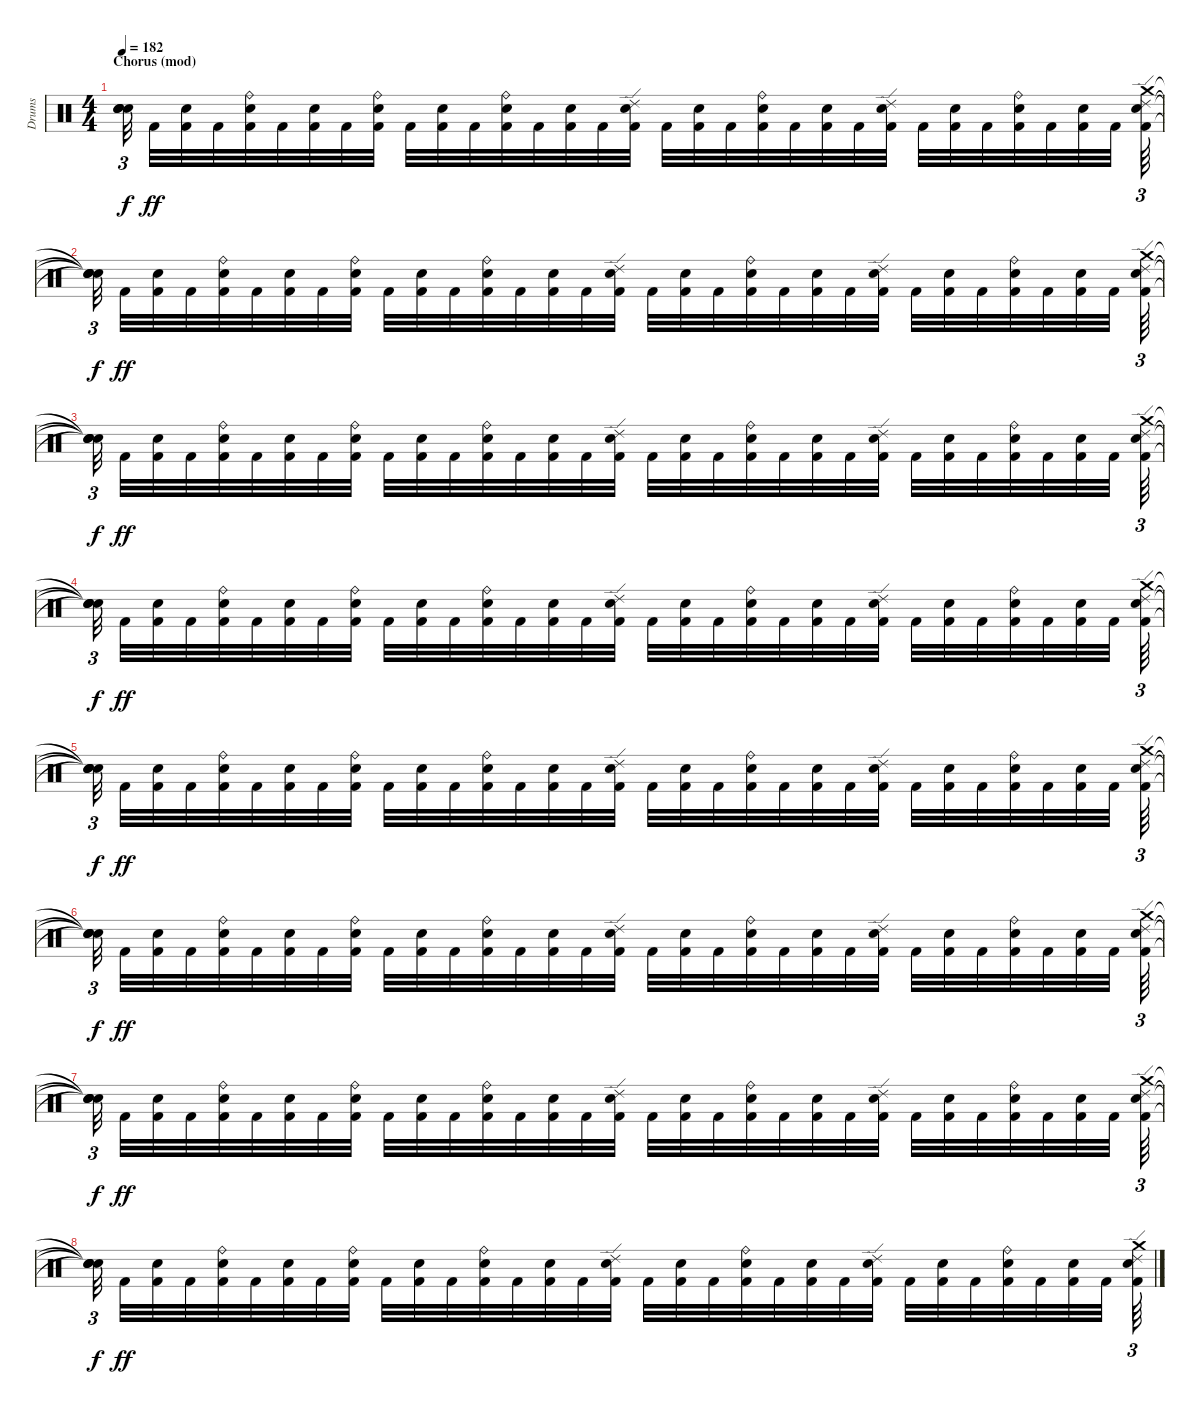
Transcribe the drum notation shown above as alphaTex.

\track ("Drums" "Drums") {instrument percussion}
\staff {score}
\articulation defaults
\ts (4 4)
\section ("" "Chorus (mod)")
\tempo 182
\clef neutral
\ks c
("Snare (hit)"{t} "Snare (hit)"{t} "Snare (hit)"{t} "Snare (hit)"{t}).32{tu (3 2) dy f beam splitsecondary} "Kick (hit) 2".32{dy ff} ("Kick (hit) 2" "Snare (hit) 2").32 "Kick (hit) 2".32 ("Kick (hit) 2" "Snare (hit) 2" "Ride (bell)").32 "Kick (hit) 2".32 ("Kick (hit) 2" "Snare (hit) 2").32 "Kick (hit) 2".32 ("Kick (hit) 2" "Snare (hit) 2" "Ride (bell)").32 "Kick (hit) 2".32 ("Kick (hit) 2" "Snare (hit) 2").32 "Kick (hit) 2".32 ("Kick (hit) 2" "Snare (hit) 2" "Ride (bell)").32 "Kick (hit) 2".32 ("Kick (hit) 2" "Snare (hit) 2").32 "Kick (hit) 2".32 ("Kick (hit) 2" "Snare (hit) 2" "Ride (edge) 2").32 "Kick (hit) 2".32 ("Kick (hit) 2" "Snare (hit) 2").32 "Kick (hit) 2".32 ("Kick (hit) 2" "Snare (hit) 2" "Ride (bell)").32 "Kick (hit) 2".32 ("Kick (hit) 2" "Snare (hit) 2").32 "Kick (hit) 2".32 ("Kick (hit) 2" "Snare (hit) 2" "Ride (edge) 2").32 "Kick (hit) 2".32 ("Kick (hit) 2" "Snare (hit) 2").32 "Kick (hit) 2".32 ("Kick (hit) 2" "Snare (hit) 2" "Ride (bell)").32 "Kick (hit) 2".32 ("Kick (hit) 2" "Snare (hit) 2").32 "Kick (hit) 2".32{beam splitsecondary} ("Kick (hit) 2" "Snare (hit) 2" "Ride (edge) 2" "Crash medium (hit)").64{tu (3 2)} |
("Snare (hit)"{t} "Snare (hit)"{t} "Snare (hit)"{t} "Snare (hit)"{t}).32{tu (3 2) dy f beam splitsecondary} "Kick (hit) 2".32{dy ff} ("Kick (hit) 2" "Snare (hit) 2").32 "Kick (hit) 2".32 ("Kick (hit) 2" "Snare (hit) 2" "Ride (bell)").32 "Kick (hit) 2".32 ("Kick (hit) 2" "Snare (hit) 2").32 "Kick (hit) 2".32 ("Kick (hit) 2" "Snare (hit) 2" "Ride (bell)").32 "Kick (hit) 2".32 ("Kick (hit) 2" "Snare (hit) 2").32 "Kick (hit) 2".32 ("Kick (hit) 2" "Snare (hit) 2" "Ride (bell)").32 "Kick (hit) 2".32 ("Kick (hit) 2" "Snare (hit) 2").32 "Kick (hit) 2".32 ("Kick (hit) 2" "Snare (hit) 2" "Ride (edge) 2").32 "Kick (hit) 2".32 ("Kick (hit) 2" "Snare (hit) 2").32 "Kick (hit) 2".32 ("Kick (hit) 2" "Snare (hit) 2" "Ride (bell)").32 "Kick (hit) 2".32 ("Kick (hit) 2" "Snare (hit) 2").32 "Kick (hit) 2".32 ("Kick (hit) 2" "Snare (hit) 2" "Ride (edge) 2").32 "Kick (hit) 2".32 ("Kick (hit) 2" "Snare (hit) 2").32 "Kick (hit) 2".32 ("Kick (hit) 2" "Snare (hit) 2" "Ride (bell)").32 "Kick (hit) 2".32 ("Kick (hit) 2" "Snare (hit) 2").32 "Kick (hit) 2".32{beam splitsecondary} ("Kick (hit) 2" "Snare (hit) 2" "Ride (edge) 2" "Crash medium (hit)").64{tu (3 2)} |
("Snare (hit)"{t} "Snare (hit)"{t} "Snare (hit)"{t} "Snare (hit)"{t}).32{tu (3 2) dy f beam splitsecondary} "Kick (hit) 2".32{dy ff} ("Kick (hit) 2" "Snare (hit) 2").32 "Kick (hit) 2".32 ("Kick (hit) 2" "Snare (hit) 2" "Ride (bell)").32 "Kick (hit) 2".32 ("Kick (hit) 2" "Snare (hit) 2").32 "Kick (hit) 2".32 ("Kick (hit) 2" "Snare (hit) 2" "Ride (bell)").32 "Kick (hit) 2".32 ("Kick (hit) 2" "Snare (hit) 2").32 "Kick (hit) 2".32 ("Kick (hit) 2" "Snare (hit) 2" "Ride (bell)").32 "Kick (hit) 2".32 ("Kick (hit) 2" "Snare (hit) 2").32 "Kick (hit) 2".32 ("Kick (hit) 2" "Snare (hit) 2" "Ride (edge) 2").32 "Kick (hit) 2".32 ("Kick (hit) 2" "Snare (hit) 2").32 "Kick (hit) 2".32 ("Kick (hit) 2" "Snare (hit) 2" "Ride (bell)").32 "Kick (hit) 2".32 ("Kick (hit) 2" "Snare (hit) 2").32 "Kick (hit) 2".32 ("Kick (hit) 2" "Snare (hit) 2" "Ride (edge) 2").32 "Kick (hit) 2".32 ("Kick (hit) 2" "Snare (hit) 2").32 "Kick (hit) 2".32 ("Kick (hit) 2" "Snare (hit) 2" "Ride (bell)").32 "Kick (hit) 2".32 ("Kick (hit) 2" "Snare (hit) 2").32 "Kick (hit) 2".32{beam splitsecondary} ("Kick (hit) 2" "Snare (hit) 2" "Ride (edge) 2" "Crash medium (hit)").64{tu (3 2)} |
("Snare (hit)"{t} "Snare (hit)"{t} "Snare (hit)"{t} "Snare (hit)"{t}).32{tu (3 2) dy f beam splitsecondary} "Kick (hit) 2".32{dy ff} ("Kick (hit) 2" "Snare (hit) 2").32 "Kick (hit) 2".32 ("Kick (hit) 2" "Snare (hit) 2" "Ride (bell)").32 "Kick (hit) 2".32 ("Kick (hit) 2" "Snare (hit) 2").32 "Kick (hit) 2".32 ("Kick (hit) 2" "Snare (hit) 2" "Ride (bell)").32 "Kick (hit) 2".32 ("Kick (hit) 2" "Snare (hit) 2").32 "Kick (hit) 2".32 ("Kick (hit) 2" "Snare (hit) 2" "Ride (bell)").32 "Kick (hit) 2".32 ("Kick (hit) 2" "Snare (hit) 2").32 "Kick (hit) 2".32 ("Kick (hit) 2" "Snare (hit) 2" "Ride (edge) 2").32 "Kick (hit) 2".32 ("Kick (hit) 2" "Snare (hit) 2").32 "Kick (hit) 2".32 ("Kick (hit) 2" "Snare (hit) 2" "Ride (bell)").32 "Kick (hit) 2".32 ("Kick (hit) 2" "Snare (hit) 2").32 "Kick (hit) 2".32 ("Kick (hit) 2" "Snare (hit) 2" "Ride (edge) 2").32 "Kick (hit) 2".32 ("Kick (hit) 2" "Snare (hit) 2").32 "Kick (hit) 2".32 ("Kick (hit) 2" "Snare (hit) 2" "Ride (bell)").32 "Kick (hit) 2".32 ("Kick (hit) 2" "Snare (hit) 2").32 "Kick (hit) 2".32{beam splitsecondary} ("Kick (hit) 2" "Snare (hit) 2" "Ride (edge) 2" "Crash medium (hit)").64{tu (3 2)} |
("Snare (hit)"{t} "Snare (hit)"{t} "Snare (hit)"{t} "Snare (hit)"{t}).32{tu (3 2) dy f beam splitsecondary} "Kick (hit) 2".32{dy ff} ("Kick (hit) 2" "Snare (hit) 2").32 "Kick (hit) 2".32 ("Kick (hit) 2" "Snare (hit) 2" "Ride (bell)").32 "Kick (hit) 2".32 ("Kick (hit) 2" "Snare (hit) 2").32 "Kick (hit) 2".32 ("Kick (hit) 2" "Snare (hit) 2" "Ride (bell)").32 "Kick (hit) 2".32 ("Kick (hit) 2" "Snare (hit) 2").32 "Kick (hit) 2".32 ("Kick (hit) 2" "Snare (hit) 2" "Ride (bell)").32 "Kick (hit) 2".32 ("Kick (hit) 2" "Snare (hit) 2").32 "Kick (hit) 2".32 ("Kick (hit) 2" "Snare (hit) 2" "Ride (edge) 2").32 "Kick (hit) 2".32 ("Kick (hit) 2" "Snare (hit) 2").32 "Kick (hit) 2".32 ("Kick (hit) 2" "Snare (hit) 2" "Ride (bell)").32 "Kick (hit) 2".32 ("Kick (hit) 2" "Snare (hit) 2").32 "Kick (hit) 2".32 ("Kick (hit) 2" "Snare (hit) 2" "Ride (edge) 2").32 "Kick (hit) 2".32 ("Kick (hit) 2" "Snare (hit) 2").32 "Kick (hit) 2".32 ("Kick (hit) 2" "Snare (hit) 2" "Ride (bell)").32 "Kick (hit) 2".32 ("Kick (hit) 2" "Snare (hit) 2").32 "Kick (hit) 2".32{beam splitsecondary} ("Kick (hit) 2" "Snare (hit) 2" "Ride (edge) 2" "Crash medium (hit)").64{tu (3 2)} |
("Snare (hit)"{t} "Snare (hit)"{t} "Snare (hit)"{t} "Snare (hit)"{t}).32{tu (3 2) dy f beam splitsecondary} "Kick (hit) 2".32{dy ff} ("Kick (hit) 2" "Snare (hit) 2").32 "Kick (hit) 2".32 ("Kick (hit) 2" "Snare (hit) 2" "Ride (bell)").32 "Kick (hit) 2".32 ("Kick (hit) 2" "Snare (hit) 2").32 "Kick (hit) 2".32 ("Kick (hit) 2" "Snare (hit) 2" "Ride (bell)").32 "Kick (hit) 2".32 ("Kick (hit) 2" "Snare (hit) 2").32 "Kick (hit) 2".32 ("Kick (hit) 2" "Snare (hit) 2" "Ride (bell)").32 "Kick (hit) 2".32 ("Kick (hit) 2" "Snare (hit) 2").32 "Kick (hit) 2".32 ("Kick (hit) 2" "Snare (hit) 2" "Ride (edge) 2").32 "Kick (hit) 2".32 ("Kick (hit) 2" "Snare (hit) 2").32 "Kick (hit) 2".32 ("Kick (hit) 2" "Snare (hit) 2" "Ride (bell)").32 "Kick (hit) 2".32 ("Kick (hit) 2" "Snare (hit) 2").32 "Kick (hit) 2".32 ("Kick (hit) 2" "Snare (hit) 2" "Ride (edge) 2").32 "Kick (hit) 2".32 ("Kick (hit) 2" "Snare (hit) 2").32 "Kick (hit) 2".32 ("Kick (hit) 2" "Snare (hit) 2" "Ride (bell)").32 "Kick (hit) 2".32 ("Kick (hit) 2" "Snare (hit) 2").32 "Kick (hit) 2".32{beam splitsecondary} ("Kick (hit) 2" "Snare (hit) 2" "Ride (edge) 2" "Crash medium (hit)").64{tu (3 2)} |
("Snare (hit)"{t} "Snare (hit)"{t} "Snare (hit)"{t} "Snare (hit)"{t}).32{tu (3 2) dy f beam splitsecondary} "Kick (hit) 2".32{dy ff} ("Kick (hit) 2" "Snare (hit) 2").32 "Kick (hit) 2".32 ("Kick (hit) 2" "Snare (hit) 2" "Ride (bell)").32 "Kick (hit) 2".32 ("Kick (hit) 2" "Snare (hit) 2").32 "Kick (hit) 2".32 ("Kick (hit) 2" "Snare (hit) 2" "Ride (bell)").32 "Kick (hit) 2".32 ("Kick (hit) 2" "Snare (hit) 2").32 "Kick (hit) 2".32 ("Kick (hit) 2" "Snare (hit) 2" "Ride (bell)").32 "Kick (hit) 2".32 ("Kick (hit) 2" "Snare (hit) 2").32 "Kick (hit) 2".32 ("Kick (hit) 2" "Snare (hit) 2" "Ride (edge) 2").32 "Kick (hit) 2".32 ("Kick (hit) 2" "Snare (hit) 2").32 "Kick (hit) 2".32 ("Kick (hit) 2" "Snare (hit) 2" "Ride (bell)").32 "Kick (hit) 2".32 ("Kick (hit) 2" "Snare (hit) 2").32 "Kick (hit) 2".32 ("Kick (hit) 2" "Snare (hit) 2" "Ride (edge) 2").32 "Kick (hit) 2".32 ("Kick (hit) 2" "Snare (hit) 2").32 "Kick (hit) 2".32 ("Kick (hit) 2" "Snare (hit) 2" "Ride (bell)").32 "Kick (hit) 2".32 ("Kick (hit) 2" "Snare (hit) 2").32 "Kick (hit) 2".32{beam splitsecondary} ("Kick (hit) 2" "Snare (hit) 2" "Ride (edge) 2" "Crash medium (hit)").64{tu (3 2)} |
("Snare (hit)"{t} "Snare (hit)"{t} "Snare (hit)"{t} "Snare (hit)"{t}).32{tu (3 2) dy f beam splitsecondary} "Kick (hit) 2".32{dy ff} ("Kick (hit) 2" "Snare (hit) 2").32 "Kick (hit) 2".32 ("Kick (hit) 2" "Snare (hit) 2" "Ride (bell)").32 "Kick (hit) 2".32 ("Kick (hit) 2" "Snare (hit) 2").32 "Kick (hit) 2".32 ("Kick (hit) 2" "Snare (hit) 2" "Ride (bell)").32 "Kick (hit) 2".32 ("Kick (hit) 2" "Snare (hit) 2").32 "Kick (hit) 2".32 ("Kick (hit) 2" "Snare (hit) 2" "Ride (bell)").32 "Kick (hit) 2".32 ("Kick (hit) 2" "Snare (hit) 2").32 "Kick (hit) 2".32 ("Kick (hit) 2" "Snare (hit) 2" "Ride (edge) 2").32 "Kick (hit) 2".32 ("Kick (hit) 2" "Snare (hit) 2").32 "Kick (hit) 2".32 ("Kick (hit) 2" "Snare (hit) 2" "Ride (bell)").32 "Kick (hit) 2".32 ("Kick (hit) 2" "Snare (hit) 2").32 "Kick (hit) 2".32 ("Kick (hit) 2" "Snare (hit) 2" "Ride (edge) 2").32 "Kick (hit) 2".32 ("Kick (hit) 2" "Snare (hit) 2").32 "Kick (hit) 2".32 ("Kick (hit) 2" "Snare (hit) 2" "Ride (bell)").32 "Kick (hit) 2".32 ("Kick (hit) 2" "Snare (hit) 2").32 "Kick (hit) 2".32{beam splitsecondary} ("Kick (hit) 2" "Snare (hit) 2" "Ride (edge) 2" "Crash medium (hit)").64{tu (3 2)}
